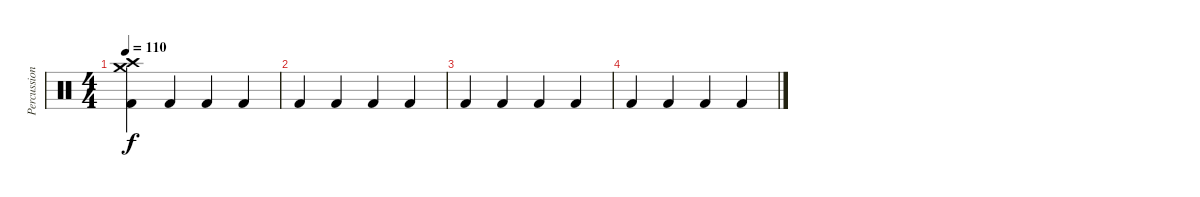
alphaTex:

\track ("Percussion" "Percussion") {instrument percussion}
\staff {score}
\articulation defaults
\ts (4 4)
\tempo 110
\clef neutral
\ks c
("Crash high (hit)" "Crash medium (hit)" "Kick (hit) 2").4{dy f} "Kick (hit) 2".4 "Kick (hit) 2".4 "Kick (hit) 2".4 |
"Kick (hit) 2".4 "Kick (hit) 2".4 "Kick (hit) 2".4 "Kick (hit) 2".4 |
"Kick (hit) 2".4 "Kick (hit) 2".4 "Kick (hit) 2".4 "Kick (hit) 2".4 |
"Kick (hit) 2".4 "Kick (hit) 2".4 "Kick (hit) 2".4 "Kick (hit) 2".4
